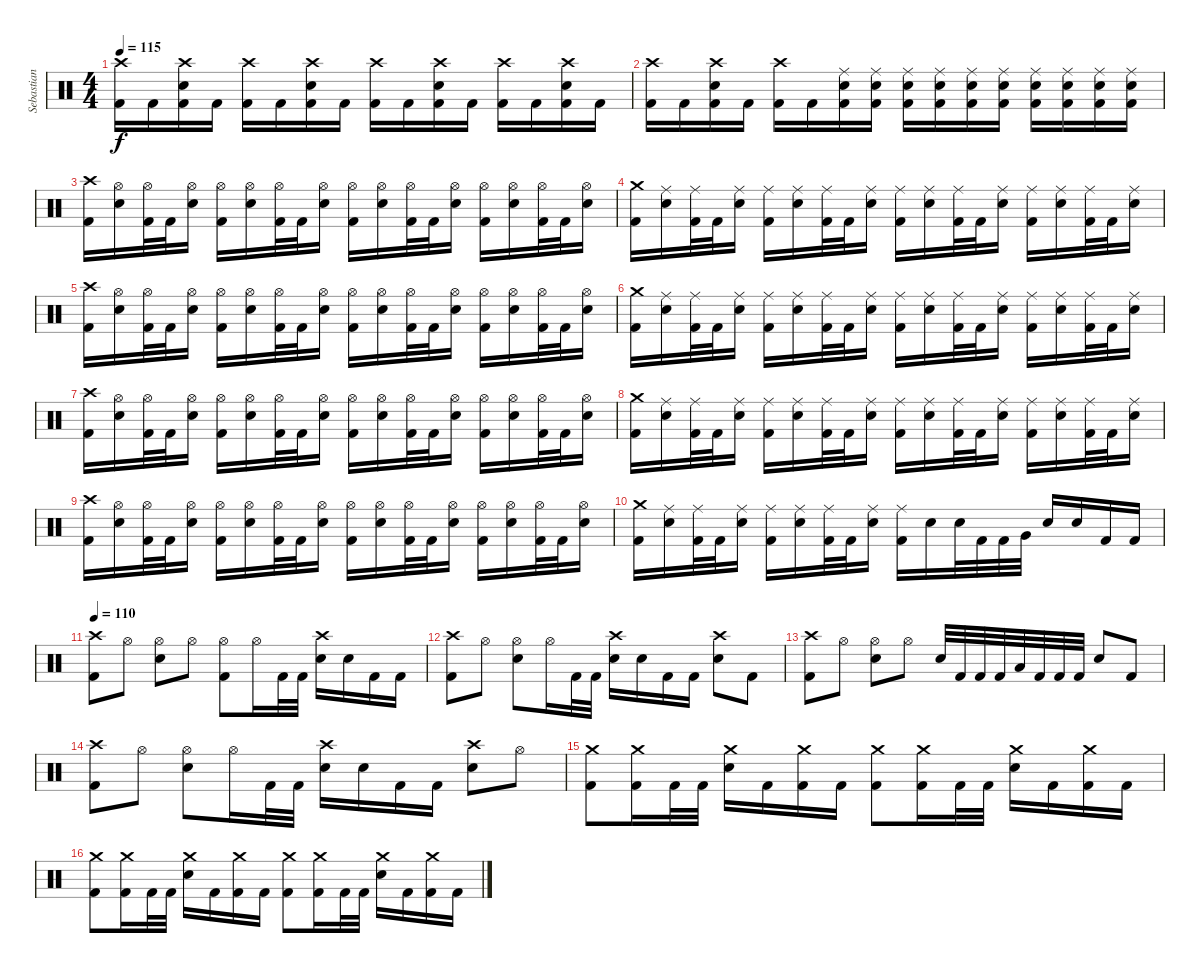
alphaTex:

\track ("Sebastian H." "Sebastian ") {instrument percussion}
\staff {score}
\articulation defaults
\ts (4 4)
\tempo 115
\clef neutral
\ks c
("Crash high (hit)" "Kick (hit) 2").16{dy f} "Kick (hit) 2".16 ("Crash high (hit)" "Electric Snare (hit)" "Kick (hit) 2").16 "Kick (hit) 2".16 ("Crash high (hit)" "Kick (hit) 2").16 "Kick (hit) 2".16 ("Crash high (hit)" "Electric Snare (hit)" "Kick (hit) 2").16 "Kick (hit) 2".16 ("Crash high (hit)" "Kick (hit) 2").16 "Kick (hit) 2".16 ("Crash high (hit)" "Electric Snare (hit)" "Kick (hit) 2").16 "Kick (hit) 2".16 ("Crash high (hit)" "Kick (hit) 2").16 "Kick (hit) 2".16 ("Crash high (hit)" "Electric Snare (hit)" "Kick (hit) 2").16 "Kick (hit) 2".16 |
("Crash high (hit)" "Kick (hit) 2").16 "Kick (hit) 2".16 ("Crash high (hit)" "Electric Snare (hit)" "Kick (hit) 2").16 "Kick (hit) 2".16 ("Crash high (hit)" "Kick (hit) 2").16 "Kick (hit) 2".16 ("Ride (middle)" "Electric Snare (hit)" "Kick (hit) 2").16 ("Ride (middle)" "Electric Snare (hit)" "Kick (hit) 2").16 ("Ride (middle)" "Electric Snare (hit)" "Kick (hit) 2").16 ("Ride (middle)" "Electric Snare (hit)" "Kick (hit) 2").16 ("Ride (middle)" "Electric Snare (hit)" "Kick (hit) 2").16 ("Ride (middle)" "Electric Snare (hit)" "Kick (hit) 2").16 ("Ride (middle)" "Electric Snare (hit)" "Kick (hit) 2").16 ("Ride (middle)" "Electric Snare (hit)" "Kick (hit) 2").16 ("Ride (middle)" "Electric Snare (hit)" "Kick (hit) 2").16 ("Ride (middle)" "Electric Snare (hit)" "Kick (hit) 2").16 |
("Crash high (hit)" "Kick (hit) 2").16 ("Hi-Hat (open)" "Electric Snare (hit)").16 ("Hi-Hat (open)" "Kick (hit) 2").32 "Kick (hit) 2".32 ("Hi-Hat (open)" "Electric Snare (hit)").16 ("Hi-Hat (open)" "Kick (hit) 2").16 ("Hi-Hat (open)" "Electric Snare (hit)").16 ("Hi-Hat (open)" "Kick (hit) 2").32 "Kick (hit) 2".32 ("Hi-Hat (open)" "Electric Snare (hit)").16 ("Hi-Hat (open)" "Kick (hit) 2").16 ("Hi-Hat (open)" "Electric Snare (hit)").16 ("Hi-Hat (open)" "Kick (hit) 2").32 "Kick (hit) 2".32 ("Hi-Hat (open)" "Electric Snare (hit)").16 ("Hi-Hat (open)" "Kick (hit) 2").16 ("Hi-Hat (open)" "Electric Snare (hit)").16 ("Hi-Hat (open)" "Kick (hit) 2").32 "Kick (hit) 2".32 ("Hi-Hat (open)" "Electric Snare (hit)").16 |
("Crash medium (hit)" "Kick (hit) 2").16 ("Ride (middle)" "Electric Snare (hit)").16 ("Ride (middle)" "Kick (hit) 2").32 "Kick (hit) 2".32 ("Ride (middle)" "Electric Snare (hit)").16 ("Ride (middle)" "Kick (hit) 2").16 ("Ride (middle)" "Electric Snare (hit)").16 ("Ride (middle)" "Kick (hit) 2").32 "Kick (hit) 2".32 ("Ride (middle)" "Electric Snare (hit)").16 ("Ride (middle)" "Kick (hit) 2").16 ("Ride (middle)" "Electric Snare (hit)").16 ("Ride (middle)" "Kick (hit) 2").32 "Kick (hit) 2".32 ("Ride (middle)" "Electric Snare (hit)").16 ("Ride (middle)" "Kick (hit) 2").16 ("Ride (middle)" "Electric Snare (hit)").16 ("Ride (middle)" "Kick (hit) 2").32 "Kick (hit) 2".32 ("Ride (middle)" "Electric Snare (hit)").16 |
("Crash high (hit)" "Kick (hit) 2").16 ("Hi-Hat (open)" "Electric Snare (hit)").16 ("Hi-Hat (open)" "Kick (hit) 2").32 "Kick (hit) 2".32 ("Hi-Hat (open)" "Electric Snare (hit)").16 ("Hi-Hat (open)" "Kick (hit) 2").16 ("Hi-Hat (open)" "Electric Snare (hit)").16 ("Hi-Hat (open)" "Kick (hit) 2").32 "Kick (hit) 2".32 ("Hi-Hat (open)" "Electric Snare (hit)").16 ("Hi-Hat (open)" "Kick (hit) 2").16 ("Hi-Hat (open)" "Electric Snare (hit)").16 ("Hi-Hat (open)" "Kick (hit) 2").32 "Kick (hit) 2".32 ("Hi-Hat (open)" "Electric Snare (hit)").16 ("Hi-Hat (open)" "Kick (hit) 2").16 ("Hi-Hat (open)" "Electric Snare (hit)").16 ("Hi-Hat (open)" "Kick (hit) 2").32 "Kick (hit) 2".32 ("Hi-Hat (open)" "Electric Snare (hit)").16 |
("Crash medium (hit)" "Kick (hit) 2").16 ("Ride (middle)" "Electric Snare (hit)").16 ("Ride (middle)" "Kick (hit) 2").32 "Kick (hit) 2".32 ("Ride (middle)" "Electric Snare (hit)").16 ("Ride (middle)" "Kick (hit) 2").16 ("Ride (middle)" "Electric Snare (hit)").16 ("Ride (middle)" "Kick (hit) 2").32 "Kick (hit) 2".32 ("Ride (middle)" "Electric Snare (hit)").16 ("Ride (middle)" "Kick (hit) 2").16 ("Ride (middle)" "Electric Snare (hit)").16 ("Ride (middle)" "Kick (hit) 2").32 "Kick (hit) 2".32 ("Ride (middle)" "Electric Snare (hit)").16 ("Ride (middle)" "Kick (hit) 2").16 ("Ride (middle)" "Electric Snare (hit)").16 ("Ride (middle)" "Kick (hit) 2").32 "Kick (hit) 2".32 ("Ride (middle)" "Electric Snare (hit)").16 |
("Crash high (hit)" "Kick (hit) 2").16 ("Hi-Hat (open)" "Electric Snare (hit)").16 ("Hi-Hat (open)" "Kick (hit) 2").32 "Kick (hit) 2".32 ("Hi-Hat (open)" "Electric Snare (hit)").16 ("Hi-Hat (open)" "Kick (hit) 2").16 ("Hi-Hat (open)" "Electric Snare (hit)").16 ("Hi-Hat (open)" "Kick (hit) 2").32 "Kick (hit) 2".32 ("Hi-Hat (open)" "Electric Snare (hit)").16 ("Hi-Hat (open)" "Kick (hit) 2").16 ("Hi-Hat (open)" "Electric Snare (hit)").16 ("Hi-Hat (open)" "Kick (hit) 2").32 "Kick (hit) 2".32 ("Hi-Hat (open)" "Electric Snare (hit)").16 ("Hi-Hat (open)" "Kick (hit) 2").16 ("Hi-Hat (open)" "Electric Snare (hit)").16 ("Hi-Hat (open)" "Kick (hit) 2").32 "Kick (hit) 2".32 ("Hi-Hat (open)" "Electric Snare (hit)").16 |
("Crash medium (hit)" "Kick (hit) 2").16 ("Ride (middle)" "Electric Snare (hit)").16 ("Ride (middle)" "Kick (hit) 2").32 "Kick (hit) 2".32 ("Ride (middle)" "Electric Snare (hit)").16 ("Ride (middle)" "Kick (hit) 2").16 ("Ride (middle)" "Electric Snare (hit)").16 ("Ride (middle)" "Kick (hit) 2").32 "Kick (hit) 2".32 ("Ride (middle)" "Electric Snare (hit)").16 ("Ride (middle)" "Kick (hit) 2").16 ("Ride (middle)" "Electric Snare (hit)").16 ("Ride (middle)" "Kick (hit) 2").32 "Kick (hit) 2".32 ("Ride (middle)" "Electric Snare (hit)").16 ("Ride (middle)" "Kick (hit) 2").16 ("Ride (middle)" "Electric Snare (hit)").16 ("Ride (middle)" "Kick (hit) 2").32 "Kick (hit) 2".32 ("Ride (middle)" "Electric Snare (hit)").16 |
("Crash high (hit)" "Kick (hit) 2").16 ("Hi-Hat (open)" "Electric Snare (hit)").16 ("Hi-Hat (open)" "Kick (hit) 2").32 "Kick (hit) 2".32 ("Hi-Hat (open)" "Electric Snare (hit)").16 ("Hi-Hat (open)" "Kick (hit) 2").16 ("Hi-Hat (open)" "Electric Snare (hit)").16 ("Hi-Hat (open)" "Kick (hit) 2").32 "Kick (hit) 2".32 ("Hi-Hat (open)" "Electric Snare (hit)").16 ("Hi-Hat (open)" "Kick (hit) 2").16 ("Hi-Hat (open)" "Electric Snare (hit)").16 ("Hi-Hat (open)" "Kick (hit) 2").32 "Kick (hit) 2".32 ("Hi-Hat (open)" "Electric Snare (hit)").16 ("Hi-Hat (open)" "Kick (hit) 2").16 ("Hi-Hat (open)" "Electric Snare (hit)").16 ("Hi-Hat (open)" "Kick (hit) 2").32 "Kick (hit) 2".32 ("Hi-Hat (open)" "Electric Snare (hit)").16 |
("Crash medium (hit)" "Kick (hit) 2").16 ("Ride (middle)" "Electric Snare (hit)").16 ("Ride (middle)" "Kick (hit) 2").32 "Kick (hit) 2".32 ("Ride (middle)" "Electric Snare (hit)").16 ("Ride (middle)" "Kick (hit) 2").16 ("Ride (middle)" "Electric Snare (hit)").16 ("Ride (middle)" "Kick (hit) 2").32 "Kick (hit) 2".32 ("Ride (middle)" "Electric Snare (hit)").16 ("Ride (middle)" "Kick (hit) 2").16 "Electric Snare (hit)".16 "Electric Snare (hit)".32 "Kick (hit) 2".32 "Kick (hit) 2".32 "Very Low Tom (hit)".32 "Electric Snare (hit)".16 "Electric Snare (hit)".16 "Kick (hit) 2".16 "Kick (hit) 2".16 |
\tempo 110
("Crash high (hit)" "Kick (hit) 2").8 "Hi-Hat (open)".8 ("Electric Snare (hit)" "Hi-Hat (open)").8 "Hi-Hat (open)".8 ("Kick (hit) 2" "Hi-Hat (open)").8 "Hi-Hat (open)".16 "Kick (hit) 2".32 "Kick (hit) 2".32 ("Crash high (hit)" "Electric Snare (hit)").16 "Electric Snare (hit)".16 "Kick (hit) 2".16 "Kick (hit) 2".16 |
("Crash high (hit)" "Kick (hit) 2").8 "Hi-Hat (open)".8 ("Electric Snare (hit)" "Hi-Hat (open)").8 "Hi-Hat (open)".16 "Kick (hit) 2".32 "Kick (hit) 2".32 ("Crash high (hit)" "Electric Snare (hit)").16 "Electric Snare (hit)".16 "Kick (hit) 2".16 "Kick (hit) 2".16 ("Crash high (hit)" "Electric Snare (hit)").8 "Kick (hit) 2".8 |
("Crash high (hit)" "Kick (hit) 2").8 "Hi-Hat (open)".8 ("Electric Snare (hit)" "Hi-Hat (open)").8 "Hi-Hat (open)".8 "Electric Snare (hit)".32 "Kick (hit) 2".32 "Kick (hit) 2".32 "Kick (hit) 2".32 "Low Tom (hit)".32 "Kick (hit) 2".32 "Kick (hit) 2".32 "Kick (hit) 2".32 "Electric Snare (hit)".8 "Kick (hit) 2".8 |
("Crash high (hit)" "Kick (hit) 2").8 "Hi-Hat (open)".8 ("Electric Snare (hit)" "Hi-Hat (open)").8 "Hi-Hat (open)".16 "Kick (hit) 2".32 "Kick (hit) 2".32 ("Crash high (hit)" "Electric Snare (hit)").16 "Electric Snare (hit)".16 "Kick (hit) 2".16 "Kick (hit) 2".16 ("Crash high (hit)" "Electric Snare (hit)").8 "Hi-Hat (open)".8 |
("Crash medium (hit)" "Kick (hit) 2").8 ("Crash medium (hit)" "Kick (hit) 2").16 "Kick (hit) 2".32 "Kick (hit) 2".32 ("Crash medium (hit)" "Electric Snare (hit)").16 "Kick (hit) 2".16 ("Crash medium (hit)" "Kick (hit) 2").16 "Kick (hit) 2".16 ("Crash medium (hit)" "Kick (hit) 2").8 ("Crash medium (hit)" "Kick (hit) 2").16 "Kick (hit) 2".32 "Kick (hit) 2".32 ("Crash medium (hit)" "Electric Snare (hit)").16 "Kick (hit) 2".16 ("Crash medium (hit)" "Kick (hit) 2").16 "Kick (hit) 2".16 |
("Crash medium (hit)" "Kick (hit) 2").8 ("Crash medium (hit)" "Kick (hit) 2").16 "Kick (hit) 2".32 "Kick (hit) 2".32 ("Crash medium (hit)" "Electric Snare (hit)").16 "Kick (hit) 2".16 ("Crash medium (hit)" "Kick (hit) 2").16 "Kick (hit) 2".16 ("Crash medium (hit)" "Kick (hit) 2").8 ("Crash medium (hit)" "Kick (hit) 2").16 "Kick (hit) 2".32 "Kick (hit) 2".32 ("Crash medium (hit)" "Electric Snare (hit)").16 "Kick (hit) 2".16 ("Crash medium (hit)" "Kick (hit) 2").16 "Kick (hit) 2".16
